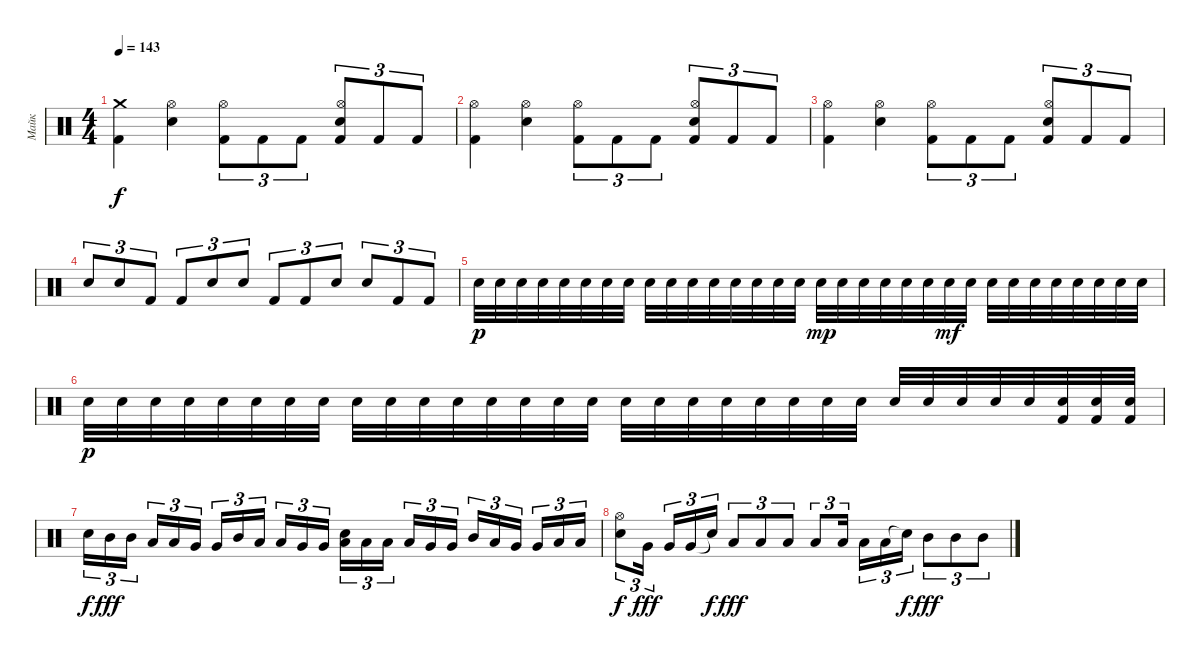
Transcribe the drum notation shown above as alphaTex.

\track ("Майк" "Майк") {instrument percussion}
\staff {score}
\articulation defaults
\ts (4 4)
\tempo 143
\clef neutral
\ks c
("Crash medium (hit)" "Kick (hit) 2").4{dy f} ("Hi-Hat (open)" "Electric Snare (hit)").4 ("Hi-Hat (open)" "Kick (hit) 2").8{tu (3 2)} "Kick (hit) 2".8{tu (3 2)} "Kick (hit) 2".8{tu (3 2)} ("Hi-Hat (open)" "Electric Snare (hit)" "Kick (hit) 2").8{tu (3 2)} "Kick (hit) 2".8{tu (3 2)} "Kick (hit) 2".8{tu (3 2)} |
("Hi-Hat (open)" "Kick (hit) 2").4 ("Hi-Hat (open)" "Electric Snare (hit)").4 ("Hi-Hat (open)" "Kick (hit) 2").8{tu (3 2)} "Kick (hit) 2".8{tu (3 2)} "Kick (hit) 2".8{tu (3 2)} ("Hi-Hat (open)" "Electric Snare (hit)" "Kick (hit) 2").8{tu (3 2)} "Kick (hit) 2".8{tu (3 2)} "Kick (hit) 2".8{tu (3 2)} |
("Hi-Hat (open)" "Kick (hit) 2").4 ("Hi-Hat (open)" "Electric Snare (hit)").4 ("Hi-Hat (open)" "Kick (hit) 2").8{tu (3 2)} "Kick (hit) 2".8{tu (3 2)} "Kick (hit) 2".8{tu (3 2)} ("Hi-Hat (open)" "Electric Snare (hit)" "Kick (hit) 2").8{tu (3 2)} "Kick (hit) 2".8{tu (3 2)} "Kick (hit) 2".8{tu (3 2)} |
"Electric Snare (hit)".8{tu (3 2)} "Electric Snare (hit)".8{tu (3 2)} "Kick (hit) 2".8{tu (3 2)} "Kick (hit) 2".8{tu (3 2)} "Electric Snare (hit)".8{tu (3 2)} "Electric Snare (hit)".8{tu (3 2)} "Kick (hit) 2".8{tu (3 2)} "Kick (hit) 2".8{tu (3 2)} "Electric Snare (hit)".8{tu (3 2)} "Electric Snare (hit)".8{tu (3 2)} "Kick (hit) 2".8{tu (3 2)} "Kick (hit) 2".8{tu (3 2)} |
"Electric Snare (hit)".32{dy p} "Electric Snare (hit)".32 "Electric Snare (hit)".32 "Electric Snare (hit)".32 "Electric Snare (hit)".32 "Electric Snare (hit)".32 "Electric Snare (hit)".32 "Electric Snare (hit)".32 "Electric Snare (hit)".32 "Electric Snare (hit)".32 "Electric Snare (hit)".32 "Electric Snare (hit)".32 "Electric Snare (hit)".32 "Electric Snare (hit)".32 "Electric Snare (hit)".32 "Electric Snare (hit)".32 "Electric Snare (hit)".32{dy mp} "Electric Snare (hit)".32 "Electric Snare (hit)".32 "Electric Snare (hit)".32 "Electric Snare (hit)".32 "Electric Snare (hit)".32 "Electric Snare (hit)".32{dy mf} "Electric Snare (hit)".32 "Electric Snare (hit)".32 "Electric Snare (hit)".32 "Electric Snare (hit)".32 "Electric Snare (hit)".32 "Electric Snare (hit)".32 "Electric Snare (hit)".32 "Electric Snare (hit)".32 "Electric Snare (hit)".32 |
"Electric Snare (hit)".32{dy p} "Electric Snare (hit)".32 "Electric Snare (hit)".32 "Electric Snare (hit)".32 "Electric Snare (hit)".32 "Electric Snare (hit)".32 "Electric Snare (hit)".32 "Electric Snare (hit)".32 "Electric Snare (hit)".32 "Electric Snare (hit)".32 "Electric Snare (hit)".32 "Electric Snare (hit)".32 "Electric Snare (hit)".32 "Electric Snare (hit)".32 "Electric Snare (hit)".32 "Electric Snare (hit)".32 "Electric Snare (hit)".32 "Electric Snare (hit)".32 "Electric Snare (hit)".32 "Electric Snare (hit)".32 "Electric Snare (hit)".32 "Electric Snare (hit)".32 "Electric Snare (hit)".32 "Electric Snare (hit)".32 "Electric Snare (hit)".32 "Electric Snare (hit)".32 "Electric Snare (hit)".32 "Electric Snare (hit)".32 "Electric Snare (hit)".32 ("Electric Snare (hit)" "Kick (hit) 2").32 ("Electric Snare (hit)" "Kick (hit) 2").32 ("Electric Snare (hit)" "Kick (hit) 2").32 |
"Electric Snare (hit)".16{tu (3 2) dy f} "Mid Tom (hit)".16{tu (3 2) dy fff} "Mid Tom (hit)".16{tu (3 2)} "Low Tom (hit)".16{tu (3 2)} "Low Tom (hit)".16{tu (3 2)} "Very Low Tom (hit)".16{tu (3 2)} "Very Low Tom (hit)".16{tu (3 2)} "Mid Tom (hit)".16{tu (3 2)} "Low Tom (hit)".16{tu (3 2)} "Low Tom (hit)".16{tu (3 2)} "Very Low Tom (hit)".16{tu (3 2)} "Very Low Tom (hit)".16{tu (3 2)} ("Electric Snare (hit)" "Low Floor Tom (hit)").16{tu (3 2)} "Low Floor Tom (hit)".16{tu (3 2)} "Low Tom (hit)".16{tu (3 2)} "Low Tom (hit)".16{tu (3 2)} "Very Low Tom (hit)".16{tu (3 2)} "Very Low Tom (hit)".16{tu (3 2)} "Mid Tom (hit)".16{tu (3 2)} "Low Tom (hit)".16{tu (3 2)} "Very Low Tom (hit)".16{tu (3 2)} "Very Low Tom (hit)".16{tu (3 2)} "Low Tom (hit)".16{tu (3 2)} "Low Tom (hit)".16{tu (3 2)} |
("Electric Snare (hit)" "Hi-Hat (open)").8{tu (3 2) dy f} "Very Low Tom (hit)".16{tu (3 2) dy fff} "Very Low Tom (hit)".16{tu (3 2)} "Very Low Tom (hit)".16{tu (3 2)} "Snare (hit)"{t}.16{tu (3 2) dy f} "Low Tom (hit)".8{tu (3 2) dy fff} "Low Tom (hit)".8{tu (3 2)} "Low Tom (hit)".8{tu (3 2)} "Low Tom (hit)".8{tu (3 2)} "Low Tom (hit)".16{tu (3 2)} "Low Tom (hit)".16{tu (3 2)} "Low Tom (hit)".16{tu (3 2)} "Snare (hit)"{t}.16{tu (3 2) dy f} "Mid Tom (hit)".8{tu (3 2) dy fff} "Mid Tom (hit)".8{tu (3 2)} "Mid Tom (hit)".8{tu (3 2)}
